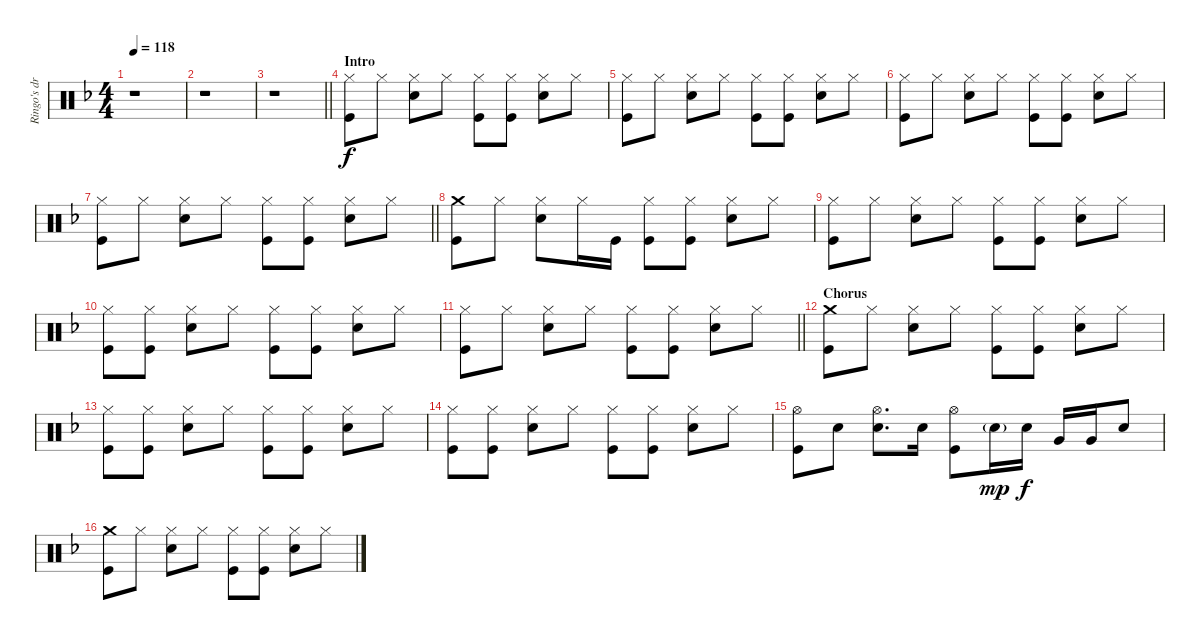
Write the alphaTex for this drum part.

\track ("Ringo's drums" "Ringo's dr") {instrument percussion}
\staff {score}
\articulation defaults
\ts (4 4)
\tempo 118
\clef neutral
\ks f
r.1{dy f} |
r.1 |
\barLineRight lightlight
r.1 |
\section ("" "Intro")
("Hi-Hat (closed)" "Kick (hit)").8 "Hi-Hat (closed)".8 ("Hi-Hat (closed)" "Electric Snare (hit)").8 "Hi-Hat (closed)".8 ("Hi-Hat (closed)" "Kick (hit)").8 ("Hi-Hat (closed)" "Kick (hit)").8 ("Hi-Hat (closed)" "Electric Snare (hit)").8 "Hi-Hat (closed)".8 |
("Hi-Hat (closed)" "Kick (hit)").8 "Hi-Hat (closed)".8 ("Hi-Hat (closed)" "Electric Snare (hit)").8 "Hi-Hat (closed)".8 ("Hi-Hat (closed)" "Kick (hit)").8 ("Hi-Hat (closed)" "Kick (hit)").8 ("Hi-Hat (closed)" "Electric Snare (hit)").8 "Hi-Hat (closed)".8 |
("Hi-Hat (closed)" "Kick (hit)").8 "Hi-Hat (closed)".8 ("Hi-Hat (closed)" "Electric Snare (hit)").8 "Hi-Hat (closed)".8 ("Hi-Hat (closed)" "Kick (hit)").8 ("Hi-Hat (closed)" "Kick (hit)").8 ("Hi-Hat (closed)" "Electric Snare (hit)").8 "Hi-Hat (closed)".8 |
\barLineRight lightlight
("Hi-Hat (closed)" "Kick (hit)").8 "Hi-Hat (closed)".8 ("Hi-Hat (closed)" "Electric Snare (hit)").8 "Hi-Hat (closed)".8 ("Hi-Hat (closed)" "Kick (hit)").8 ("Hi-Hat (closed)" "Kick (hit)").8 ("Hi-Hat (closed)" "Electric Snare (hit)").8 "Hi-Hat (closed)".8 |
\section ("" "")
("Crash medium (hit)" "Kick (hit)").8 "Hi-Hat (closed)".8 ("Hi-Hat (closed)" "Electric Snare (hit)").8 "Hi-Hat (closed)".16 "Kick (hit)".16 ("Hi-Hat (closed)" "Kick (hit)").8 ("Hi-Hat (closed)" "Kick (hit)").8 ("Hi-Hat (closed)" "Electric Snare (hit)").8 "Hi-Hat (closed)".8 |
("Hi-Hat (closed)" "Kick (hit)").8 "Hi-Hat (closed)".8 ("Hi-Hat (closed)" "Electric Snare (hit)").8 "Hi-Hat (closed)".8 ("Hi-Hat (closed)" "Kick (hit)").8 ("Hi-Hat (closed)" "Kick (hit)").8 ("Hi-Hat (closed)" "Electric Snare (hit)").8 "Hi-Hat (closed)".8 |
("Hi-Hat (closed)" "Kick (hit)").8 ("Hi-Hat (closed)" "Kick (hit)").8 ("Hi-Hat (closed)" "Electric Snare (hit)").8 "Hi-Hat (closed)".8 ("Hi-Hat (closed)" "Kick (hit)").8 ("Hi-Hat (closed)" "Kick (hit)").8 ("Hi-Hat (closed)" "Electric Snare (hit)").8 "Hi-Hat (closed)".8 |
\barLineRight lightlight
("Hi-Hat (closed)" "Kick (hit)").8 "Hi-Hat (closed)".8 ("Hi-Hat (closed)" "Electric Snare (hit)").8 "Hi-Hat (closed)".8 ("Hi-Hat (closed)" "Kick (hit)").8 ("Hi-Hat (closed)" "Kick (hit)").8 ("Hi-Hat (closed)" "Electric Snare (hit)").8 "Hi-Hat (closed)".8 |
\section ("" "Chorus")
("Crash medium (hit)" "Kick (hit)").8 "Hi-Hat (closed)".8 ("Hi-Hat (closed)" "Electric Snare (hit)").8 "Hi-Hat (closed)".8 ("Hi-Hat (closed)" "Kick (hit)").8 ("Hi-Hat (closed)" "Kick (hit)").8 ("Hi-Hat (closed)" "Electric Snare (hit)").8 "Hi-Hat (closed)".8 |
("Hi-Hat (closed)" "Kick (hit)").8 ("Hi-Hat (closed)" "Kick (hit)").8 ("Hi-Hat (closed)" "Electric Snare (hit)").8 "Hi-Hat (closed)".8 ("Hi-Hat (closed)" "Kick (hit)").8 ("Hi-Hat (closed)" "Kick (hit)").8 ("Hi-Hat (closed)" "Electric Snare (hit)").8 "Hi-Hat (closed)".8 |
("Hi-Hat (closed)" "Kick (hit)").8 ("Hi-Hat (closed)" "Kick (hit)").8 ("Hi-Hat (closed)" "Electric Snare (hit)").8 "Hi-Hat (closed)".8 ("Hi-Hat (closed)" "Kick (hit)").8 ("Hi-Hat (closed)" "Kick (hit)").8 ("Hi-Hat (closed)" "Electric Snare (hit)").8 "Hi-Hat (closed)".8 |
("Hi-Hat (open)" "Kick (hit)").8 "Electric Snare (hit)".8 ("Hi-Hat (open)" "Electric Snare (hit)").8{d} "Electric Snare (hit)".16 ("Hi-Hat (open)" "Kick (hit)").8 "Electric Snare (hit)"{g}.16{dy mp} "Electric Snare (hit)".16{dy f} "Very Low Tom (hit)".16 "Very Low Tom (hit)".16 "Electric Snare (hit)".8 |
("Crash medium (hit)" "Kick (hit)").8 "Hi-Hat (closed)".8 ("Hi-Hat (closed)" "Electric Snare (hit)").8 "Hi-Hat (closed)".8 ("Hi-Hat (closed)" "Kick (hit)").8 ("Hi-Hat (closed)" "Kick (hit)").8 ("Hi-Hat (closed)" "Electric Snare (hit)").8 "Hi-Hat (closed)".8
